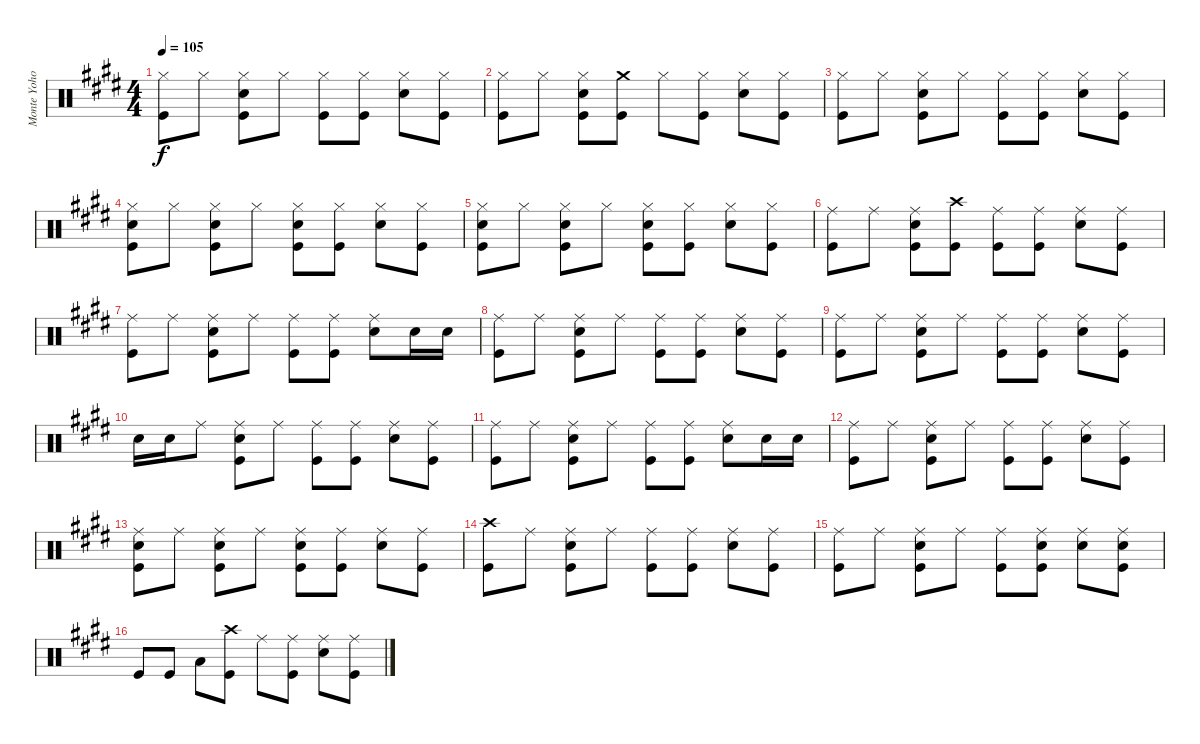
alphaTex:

\track ("Monte Yoho" "Monte Yoho") {instrument percussion}
\staff {score}
\articulation defaults
\ts (4 4)
\tempo 105
\clef neutral
\ks e
("Hi-Hat (closed)" "Kick (hit)").8{dy f} "Hi-Hat (closed)".8 ("Hi-Hat (closed)" "Snare (hit) 2" "Kick (hit)").8 "Hi-Hat (closed)".8 ("Hi-Hat (closed)" "Kick (hit)").8 ("Hi-Hat (closed)" "Kick (hit)").8 ("Hi-Hat (closed)" "Snare (hit) 2").8 ("Hi-Hat (closed)" "Kick (hit)").8 |
("Hi-Hat (closed)" "Kick (hit)").8 "Hi-Hat (closed)".8 ("Hi-Hat (closed)" "Snare (hit) 2" "Kick (hit)").8 ("Crash medium (hit)" "Kick (hit)").8 "Hi-Hat (closed)".8 ("Hi-Hat (closed)" "Kick (hit)").8 ("Hi-Hat (closed)" "Snare (hit) 2").8 ("Hi-Hat (closed)" "Kick (hit)").8 |
("Hi-Hat (closed)" "Kick (hit)").8 "Hi-Hat (closed)".8 ("Hi-Hat (closed)" "Snare (hit) 2" "Kick (hit)").8 "Hi-Hat (closed)".8 ("Hi-Hat (closed)" "Kick (hit)").8 ("Hi-Hat (closed)" "Kick (hit)").8 ("Hi-Hat (closed)" "Snare (hit) 2").8 ("Hi-Hat (closed)" "Kick (hit)").8 |
("Hi-Hat (closed)" "Snare (hit) 2" "Kick (hit)").8 "Hi-Hat (closed)".8 ("Hi-Hat (closed)" "Snare (hit) 2" "Kick (hit)").8 "Hi-Hat (closed)".8 ("Hi-Hat (closed)" "Snare (hit) 2" "Kick (hit)").8 ("Hi-Hat (closed)" "Kick (hit)").8 ("Hi-Hat (closed)" "Snare (hit) 2").8 ("Hi-Hat (closed)" "Kick (hit)").8 |
("Hi-Hat (closed)" "Snare (hit) 2" "Kick (hit)").8 "Hi-Hat (closed)".8 ("Hi-Hat (closed)" "Snare (hit) 2" "Kick (hit)").8 "Hi-Hat (closed)".8 ("Hi-Hat (closed)" "Snare (hit) 2" "Kick (hit)").8 ("Hi-Hat (closed)" "Kick (hit)").8 ("Hi-Hat (closed)" "Snare (hit) 2").8 ("Hi-Hat (closed)" "Kick (hit)").8 |
("Ride (middle)" "Kick (hit)").8 "Ride (middle)".8 ("Ride (middle)" "Snare (hit) 2" "Kick (hit)").8 ("Crash high (hit)" "Kick (hit)").8 ("Ride (middle)" "Kick (hit)").8 ("Ride (middle)" "Kick (hit)").8 ("Ride (middle)" "Snare (hit) 2").8 ("Ride (middle)" "Kick (hit)").8 |
("Ride (middle)" "Kick (hit)").8 "Ride (middle)".8 ("Ride (middle)" "Snare (hit) 2" "Kick (hit)").8 "Ride (middle)".8 ("Ride (middle)" "Kick (hit)").8 ("Ride (middle)" "Kick (hit)").8 ("Ride (middle)" "Snare (hit) 2").8 "Snare (hit) 2".16 "Snare (hit) 2".16 |
("Ride (middle)" "Kick (hit)").8 "Ride (middle)".8 ("Ride (middle)" "Snare (hit) 2" "Kick (hit)").8 "Ride (middle)".8 ("Ride (middle)" "Kick (hit)").8 ("Ride (middle)" "Kick (hit)").8 ("Ride (middle)" "Snare (hit) 2").8 ("Ride (middle)" "Kick (hit)").8 |
("Ride (middle)" "Kick (hit)").8 "Ride (middle)".8 ("Ride (middle)" "Snare (hit) 2" "Kick (hit)").8 "Ride (middle)".8 ("Ride (middle)" "Kick (hit)").8 ("Ride (middle)" "Kick (hit)").8 ("Ride (middle)" "Snare (hit) 2").8 ("Ride (middle)" "Kick (hit)").8 |
"Snare (hit) 2".16 "Snare (hit) 2".16 "Ride (middle)".8 ("Ride (middle)" "Snare (hit) 2" "Kick (hit)").8 "Ride (middle)".8 ("Ride (middle)" "Kick (hit)").8 ("Ride (middle)" "Kick (hit)").8 ("Ride (middle)" "Snare (hit) 2").8 ("Ride (middle)" "Kick (hit)").8 |
("Ride (middle)" "Kick (hit)").8 "Ride (middle)".8 ("Ride (middle)" "Snare (hit) 2" "Kick (hit)").8 "Ride (middle)".8 ("Ride (middle)" "Kick (hit)").8 ("Ride (middle)" "Kick (hit)").8 ("Ride (middle)" "Snare (hit) 2").8 "Snare (hit) 2".16 "Snare (hit) 2".16 |
("Ride (middle)" "Kick (hit)").8 "Ride (middle)".8 ("Ride (middle)" "Snare (hit) 2" "Kick (hit)").8 "Ride (middle)".8 ("Ride (middle)" "Kick (hit)").8 ("Ride (middle)" "Kick (hit)").8 ("Ride (middle)" "Snare (hit) 2").8 ("Ride (middle)" "Kick (hit)").8 |
("Ride (middle)" "Snare (hit) 2" "Kick (hit)").8 "Ride (middle)".8 ("Ride (middle)" "Snare (hit) 2" "Kick (hit)").8 "Ride (middle)".8 ("Ride (middle)" "Snare (hit) 2" "Kick (hit)").8 ("Ride (middle)" "Kick (hit)").8 ("Ride (middle)" "Snare (hit) 2").8 ("Ride (middle)" "Kick (hit)").8 |
("Crash high (hit)" "Kick (hit)").8 "Ride (middle)".8 ("Ride (middle)" "Snare (hit) 2" "Kick (hit)").8 "Ride (middle)".8 ("Ride (middle)" "Kick (hit)").8 ("Ride (middle)" "Kick (hit)").8 ("Ride (middle)" "Snare (hit) 2").8 ("Ride (middle)" "Kick (hit)").8 |
("Ride (middle)" "Kick (hit)").8 "Ride (middle)".8 ("Ride (middle)" "Snare (hit) 2" "Kick (hit)").8 "Ride (middle)".8 ("Ride (middle)" "Kick (hit)").8 ("Ride (middle)" "Snare (hit) 2" "Kick (hit)").8 ("Ride (middle)" "Snare (hit) 2").8 ("Ride (middle)" "Snare (hit) 2" "Kick (hit)").8 |
"Kick (hit)".8 "Kick (hit)".8 "Low Tom (hit)".8 ("Crash high (hit)" "Kick (hit)").8 "Ride (middle)".8 ("Ride (middle)" "Kick (hit)").8 ("Ride (middle)" "Snare (hit) 2").8 ("Ride (middle)" "Kick (hit)").8
